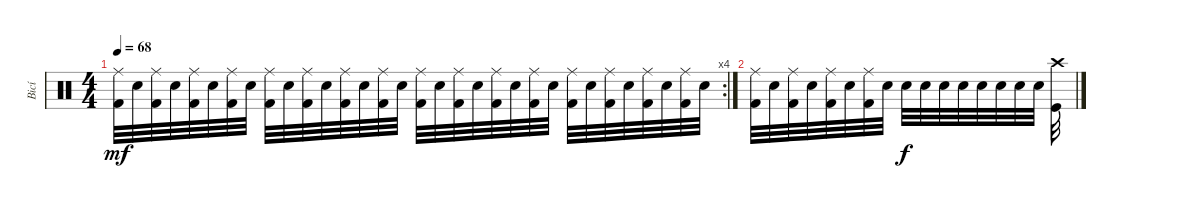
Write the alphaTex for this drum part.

\track ("Bicí" "Bicí") {instrument percussion}
\staff {score}
\articulation defaults
\rc 4
\ts (4 4)
\tempo 68
\clef neutral
\ks c
("Kick (hit) 2" "Ride (middle)").32{dy mf} "Electric Snare (hit)".32 ("Kick (hit) 2" "Ride (middle)").32 "Electric Snare (hit)".32 ("Kick (hit) 2" "Ride (middle)").32 "Electric Snare (hit)".32 ("Kick (hit) 2" "Ride (middle)").32 "Electric Snare (hit)".32 ("Kick (hit) 2" "Ride (middle)").32 "Electric Snare (hit)".32 ("Kick (hit) 2" "Ride (middle)").32 "Electric Snare (hit)".32 ("Kick (hit) 2" "Ride (middle)").32 "Electric Snare (hit)".32 ("Kick (hit) 2" "Ride (middle)").32 "Electric Snare (hit)".32 ("Kick (hit) 2" "Ride (middle)").32 "Electric Snare (hit)".32 ("Kick (hit) 2" "Ride (middle)").32 "Electric Snare (hit)".32 ("Kick (hit) 2" "Ride (middle)").32 "Electric Snare (hit)".32 ("Kick (hit) 2" "Ride (middle)").32 "Electric Snare (hit)".32 ("Kick (hit) 2" "Ride (middle)").32 "Electric Snare (hit)".32 ("Kick (hit) 2" "Ride (middle)").32 "Electric Snare (hit)".32 ("Kick (hit) 2" "Ride (middle)").32 "Electric Snare (hit)".32 ("Kick (hit) 2" "Ride (middle)").32 "Electric Snare (hit)".32 |
("Kick (hit) 2" "Ride (middle)").32 "Electric Snare (hit)".32 ("Kick (hit) 2" "Ride (middle)").32 "Electric Snare (hit)".32 ("Kick (hit) 2" "Ride (middle)").32 "Electric Snare (hit)".32 ("Kick (hit) 2" "Ride (middle)").32 "Electric Snare (hit)".32 "Electric Snare (hit)".32{dy f} "Electric Snare (hit)".32 "Electric Snare (hit)".32 "Electric Snare (hit)".32 "Electric Snare (hit)".32 "Electric Snare (hit)".32 "Electric Snare (hit)".32 "Electric Snare (hit)".32 ("Kick (hit)" "Crash high (hit)").32
